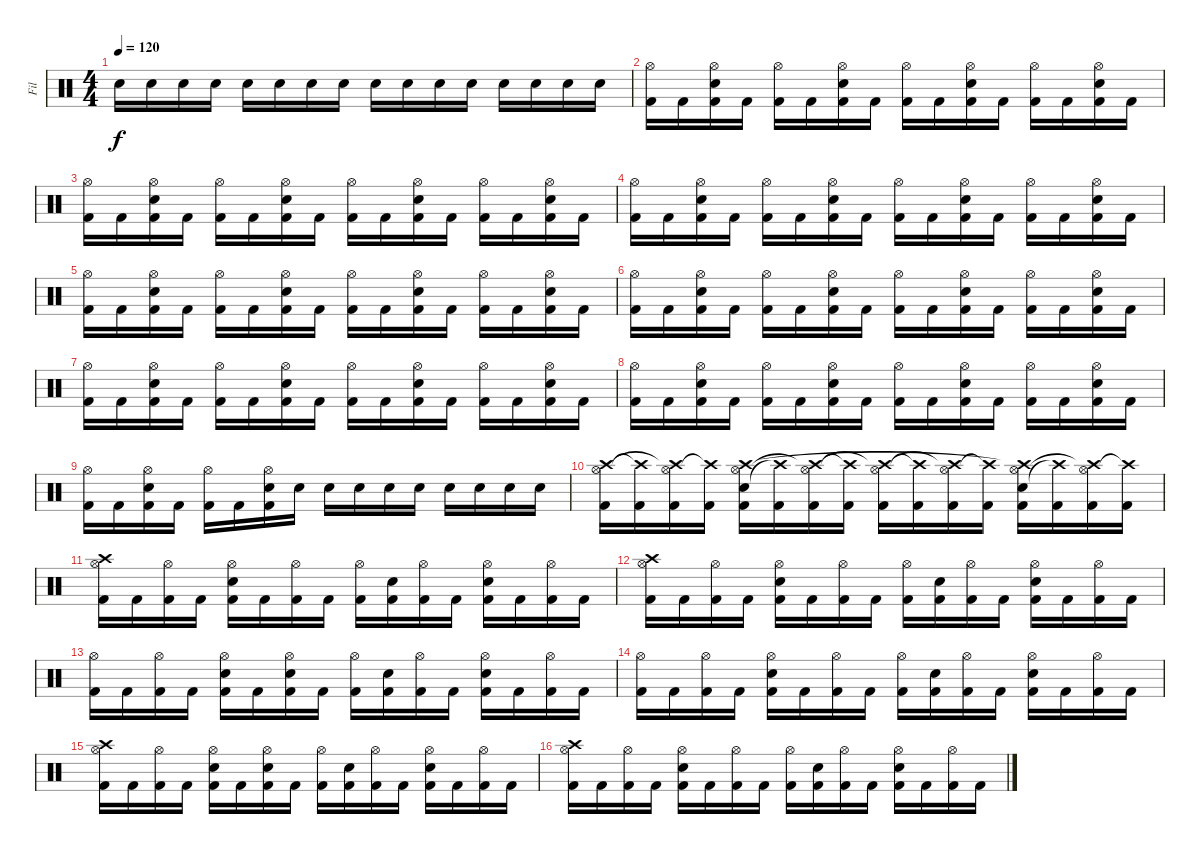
\track ("Fil" "Fil") {instrument percussion}
\staff {score}
\articulation defaults
\ts (4 4)
\tempo 120
\clef neutral
\ks c "Snare (hit) 2".16{dy f} "Snare (hit) 2".16 "Snare (hit) 2".16 "Snare (hit) 2".16 "Snare (hit) 2".16 "Snare (hit) 2".16 "Snare (hit) 2".16 "Snare (hit) 2".16 "Snare (hit) 2".16 "Snare (hit) 2".16 "Snare (hit) 2".16 "Snare (hit) 2".16 "Snare (hit) 2".16 "Snare (hit) 2".16 "Snare (hit) 2".16 "Snare (hit) 2".16
|
("Kick (hit) 2" "Hi-Hat (open)").16 "Kick (hit) 2".16 ("Kick (hit) 2" "Snare (hit) 2" "Hi-Hat (open)").16 "Kick (hit) 2".16 ("Kick (hit) 2" "Hi-Hat (open)").16 "Kick (hit) 2".16 ("Kick (hit) 2" "Snare (hit) 2" "Hi-Hat (open)").16 "Kick (hit) 2".16 ("Kick (hit) 2" "Hi-Hat (open)").16 "Kick (hit) 2".16 ("Kick (hit) 2" "Snare (hit) 2" "Hi-Hat (open)").16 "Kick (hit) 2".16 ("Kick (hit) 2" "Hi-Hat (open)").16 "Kick (hit) 2".16 ("Kick (hit) 2" "Snare (hit) 2" "Hi-Hat (open)").16 "Kick (hit) 2".16 |
("Kick (hit) 2" "Hi-Hat (open)").16 "Kick (hit) 2".16 ("Kick (hit) 2" "Snare (hit) 2" "Hi-Hat (open)").16 "Kick (hit) 2".16 ("Kick (hit) 2" "Hi-Hat (open)").16 "Kick (hit) 2".16 ("Kick (hit) 2" "Snare (hit) 2" "Hi-Hat (open)").16 "Kick (hit) 2".16 ("Kick (hit) 2" "Hi-Hat (open)").16 "Kick (hit) 2".16 ("Kick (hit) 2" "Snare (hit) 2" "Hi-Hat (open)").16 "Kick (hit) 2".16 ("Kick (hit) 2" "Hi-Hat (open)").16 "Kick (hit) 2".16 ("Kick (hit) 2" "Snare (hit) 2" "Hi-Hat (open)").16 "Kick (hit) 2".16 |
("Kick (hit) 2" "Hi-Hat (open)").16 "Kick (hit) 2".16 ("Kick (hit) 2" "Snare (hit) 2" "Hi-Hat (open)").16 "Kick (hit) 2".16 ("Kick (hit) 2" "Hi-Hat (open)").16 "Kick (hit) 2".16 ("Kick (hit) 2" "Snare (hit) 2" "Hi-Hat (open)").16 "Kick (hit) 2".16 ("Kick (hit) 2" "Hi-Hat (open)").16 "Kick (hit) 2".16 ("Kick (hit) 2" "Snare (hit) 2" "Hi-Hat (open)").16 "Kick (hit) 2".16 ("Kick (hit) 2" "Hi-Hat (open)").16 "Kick (hit) 2".16 ("Kick (hit) 2" "Snare (hit) 2" "Hi-Hat (open)").16 "Kick (hit) 2".16 |
("Kick (hit) 2" "Hi-Hat (open)").16 "Kick (hit) 2".16 ("Kick (hit) 2" "Snare (hit) 2" "Hi-Hat (open)").16 "Kick (hit) 2".16 ("Kick (hit) 2" "Hi-Hat (open)").16 "Kick (hit) 2".16 ("Kick (hit) 2" "Snare (hit) 2" "Hi-Hat (open)").16 "Kick (hit) 2".16 ("Kick (hit) 2" "Hi-Hat (open)").16 "Kick (hit) 2".16 ("Kick (hit) 2" "Snare (hit) 2" "Hi-Hat (open)").16 "Kick (hit) 2".16 ("Kick (hit) 2" "Hi-Hat (open)").16 "Kick (hit) 2".16 ("Kick (hit) 2" "Snare (hit) 2" "Hi-Hat (open)").16 "Kick (hit) 2".16 |
("Kick (hit) 2" "Hi-Hat (open)").16 "Kick (hit) 2".16 ("Kick (hit) 2" "Snare (hit) 2" "Hi-Hat (open)").16 "Kick (hit) 2".16 ("Kick (hit) 2" "Hi-Hat (open)").16 "Kick (hit) 2".16 ("Kick (hit) 2" "Snare (hit) 2" "Hi-Hat (open)").16 "Kick (hit) 2".16 ("Kick (hit) 2" "Hi-Hat (open)").16 "Kick (hit) 2".16 ("Kick (hit) 2" "Snare (hit) 2" "Hi-Hat (open)").16 "Kick (hit) 2".16 ("Kick (hit) 2" "Hi-Hat (open)").16 "Kick (hit) 2".16 ("Kick (hit) 2" "Snare (hit) 2" "Hi-Hat (open)").16 "Kick (hit) 2".16 |
("Kick (hit) 2" "Hi-Hat (open)").16 "Kick (hit) 2".16 ("Kick (hit) 2" "Snare (hit) 2" "Hi-Hat (open)").16 "Kick (hit) 2".16 ("Kick (hit) 2" "Hi-Hat (open)").16 "Kick (hit) 2".16 ("Kick (hit) 2" "Snare (hit) 2" "Hi-Hat (open)").16 "Kick (hit) 2".16 ("Kick (hit) 2" "Hi-Hat (open)").16 "Kick (hit) 2".16 ("Kick (hit) 2" "Snare (hit) 2" "Hi-Hat (open)").16 "Kick (hit) 2".16 ("Kick (hit) 2" "Hi-Hat (open)").16 "Kick (hit) 2".16 ("Kick (hit) 2" "Snare (hit) 2" "Hi-Hat (open)").16 "Kick (hit) 2".16 |
("Kick (hit) 2" "Hi-Hat (open)").16 "Kick (hit) 2".16 ("Kick (hit) 2" "Snare (hit) 2" "Hi-Hat (open)").16 "Kick (hit) 2".16 ("Kick (hit) 2" "Hi-Hat (open)").16 "Kick (hit) 2".16 ("Kick (hit) 2" "Snare (hit) 2" "Hi-Hat (open)").16 "Kick (hit) 2".16 ("Kick (hit) 2" "Hi-Hat (open)").16 "Kick (hit) 2".16 ("Kick (hit) 2" "Snare (hit) 2" "Hi-Hat (open)").16 "Kick (hit) 2".16 ("Kick (hit) 2" "Hi-Hat (open)").16 "Kick (hit) 2".16 ("Kick (hit) 2" "Snare (hit) 2" "Hi-Hat (open)").16 "Kick (hit) 2".16 |
("Kick (hit) 2" "Hi-Hat (open)").16 "Kick (hit) 2".16 ("Kick (hit) 2" "Snare (hit) 2" "Hi-Hat (open)").16 "Kick (hit) 2".16 ("Kick (hit) 2" "Hi-Hat (open)").16 "Kick (hit) 2".16 ("Kick (hit) 2" "Snare (hit) 2" "Hi-Hat (open)").16 "Snare (hit) 2".16 "Snare (hit) 2".16 "Snare (hit) 2".16 "Snare (hit) 2".16 "Snare (hit) 2".16 "Snare (hit) 2".16 "Snare (hit) 2".16 "Snare (hit) 2".16 "Snare (hit) 2".16 |
("Kick (hit) 2" "Hi-Hat (open)" "Crash high (hit)").16 ("Kick (hit) 2" "Crash high (hit)"{t}).16 ("Kick (hit) 2" "Hi-Hat (open)" "Crash high (hit)"{t}).16 ("Kick (hit) 2" "Crash high (hit)"{t}).16 ("Kick (hit) 2" "Snare (hit) 2" "Hi-Hat (open)" "Crash high (hit)").16 ("Kick (hit) 2" "Crash high (hit)"{t}).16 ("Kick (hit) 2" "Hi-Hat (open)" "Crash high (hit)"{t}).16 ("Kick (hit) 2" "Crash high (hit)"{t}).16 ("Kick (hit) 2" "Hi-Hat (open)" "Crash high (hit)"{t}).16 ("Kick (hit) 2" "Crash high (hit)"{t}).16 ("Kick (hit) 2" "Hi-Hat (open)" "Crash high (hit)"{t}).16 ("Kick (hit) 2" "Crash high (hit)"{t}).16 ("Kick (hit) 2" "Snare (hit) 2" "Hi-Hat (open)" "Crash high (hit)"{t}).16 ("Kick (hit) 2" "Crash high (hit)"{t}).16 ("Kick (hit) 2" "Hi-Hat (open)" "Crash high (hit)"{t}).16 ("Kick (hit) 2" "Crash high (hit)"{t}).16 |
("Kick (hit) 2" "Hi-Hat (open)" "Crash high (hit)").16 "Kick (hit) 2".16 ("Kick (hit) 2" "Hi-Hat (open)").16 "Kick (hit) 2".16 ("Kick (hit) 2" "Snare (hit) 2" "Hi-Hat (open)").16 "Kick (hit) 2".16 ("Kick (hit) 2" "Hi-Hat (open)").16 "Kick (hit) 2".16 ("Kick (hit) 2" "Hi-Hat (open)").16 ("Kick (hit) 2" "Snare (hit) 2").16 ("Kick (hit) 2" "Hi-Hat (open)").16 "Kick (hit) 2".16 ("Kick (hit) 2" "Snare (hit) 2" "Hi-Hat (open)").16 "Kick (hit) 2".16 ("Kick (hit) 2" "Hi-Hat (open)").16 "Kick (hit) 2".16 |
("Kick (hit) 2" "Hi-Hat (open)" "Crash high (hit)").16 "Kick (hit) 2".16 ("Kick (hit) 2" "Hi-Hat (open)").16 "Kick (hit) 2".16 ("Kick (hit) 2" "Snare (hit) 2" "Hi-Hat (open)").16 "Kick (hit) 2".16 ("Kick (hit) 2" "Hi-Hat (open)").16 "Kick (hit) 2".16 ("Kick (hit) 2" "Hi-Hat (open)").16 ("Kick (hit) 2" "Snare (hit) 2").16 ("Kick (hit) 2" "Hi-Hat (open)").16 "Kick (hit) 2".16 ("Kick (hit) 2" "Snare (hit) 2" "Hi-Hat (open)").16 "Kick (hit) 2".16 ("Kick (hit) 2" "Hi-Hat (open)").16 "Kick (hit) 2".16 |
("Kick (hit) 2" "Hi-Hat (open)").16 "Kick (hit) 2".16 ("Kick (hit) 2" "Hi-Hat (open)").16 "Kick (hit) 2".16 ("Kick (hit) 2" "Snare (hit) 2" "Hi-Hat (open)").16 "Kick (hit) 2".16 ("Kick (hit) 2" "Snare (hit) 2" "Hi-Hat (open)").16 "Kick (hit) 2".16 ("Kick (hit) 2" "Hi-Hat (open)").16 ("Kick (hit) 2" "Snare (hit) 2").16 ("Kick (hit) 2" "Hi-Hat (open)").16 "Kick (hit) 2".16 ("Kick (hit) 2" "Snare (hit) 2" "Hi-Hat (open)").16 "Kick (hit) 2".16 ("Kick (hit) 2" "Hi-Hat (open)").16 "Kick (hit) 2".16 |
("Kick (hit) 2" "Hi-Hat (open)").16 "Kick (hit) 2".16 ("Kick (hit) 2" "Hi-Hat (open)").16 "Kick (hit) 2".16 ("Kick (hit) 2" "Snare (hit) 2" "Hi-Hat (open)").16 "Kick (hit) 2".16 ("Kick (hit) 2" "Hi-Hat (open)").16 "Kick (hit) 2".16 ("Kick (hit) 2" "Hi-Hat (open)").16 ("Kick (hit) 2" "Snare (hit) 2").16 ("Kick (hit) 2" "Hi-Hat (open)").16 "Kick (hit) 2".16 ("Kick (hit) 2" "Snare (hit) 2" "Hi-Hat (open)").16 "Kick (hit) 2".16 ("Kick (hit) 2" "Hi-Hat (open)").16 "Kick (hit) 2".16 |
("Kick (hit) 2" "Hi-Hat (open)" "Crash high (hit)").16 "Kick (hit) 2".16 ("Kick (hit) 2" "Hi-Hat (open)").16 "Kick (hit) 2".16 ("Kick (hit) 2" "Snare (hit) 2" "Hi-Hat (open)").16 "Kick (hit) 2".16 ("Kick (hit) 2" "Snare (hit) 2" "Hi-Hat (open)").16 "Kick (hit) 2".16 ("Kick (hit) 2" "Hi-Hat (open)").16 ("Kick (hit) 2" "Snare (hit) 2").16 ("Kick (hit) 2" "Hi-Hat (open)").16 "Kick (hit) 2".16 ("Kick (hit) 2" "Snare (hit) 2" "Hi-Hat (open)").16 "Kick (hit) 2".16 ("Kick (hit) 2" "Hi-Hat (open)").16 "Kick (hit) 2".16 |
("Kick (hit) 2" "Hi-Hat (open)" "Crash high (hit)").16 "Kick (hit) 2".16 ("Kick (hit) 2" "Hi-Hat (open)").16 "Kick (hit) 2".16 ("Kick (hit) 2" "Snare (hit) 2" "Hi-Hat (open)").16 "Kick (hit) 2".16 ("Kick (hit) 2" "Hi-Hat (open)").16 "Kick (hit) 2".16 ("Kick (hit) 2" "Hi-Hat (open)").16 ("Kick (hit) 2" "Snare (hit) 2").16 ("Kick (hit) 2" "Hi-Hat (open)").16 "Kick (hit) 2".16 ("Kick (hit) 2" "Snare (hit) 2" "Hi-Hat (open)").16 "Kick (hit) 2".16 ("Kick (hit) 2" "Hi-Hat (open)").16 "Kick (hit) 2".16
